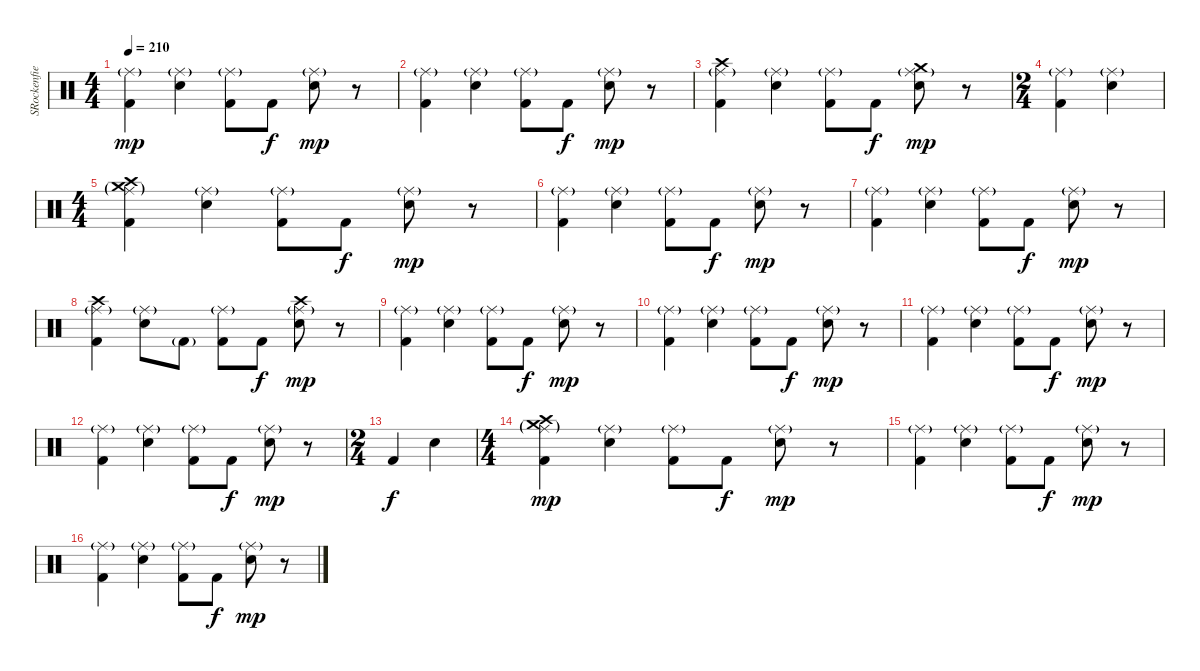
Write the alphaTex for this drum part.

\track ("SRockenfield" "SRockenfie") {instrument percussion}
\staff {score}
\articulation defaults
\ts (4 4)
\tempo 210
\clef neutral
\ks c
("Ride (middle)"{g} "Kick (hit) 2").4{dy mp} ("Ride (middle)"{g} "Electric Snare (hit)").4 ("Ride (middle)"{g} "Kick (hit) 2").8 "Kick (hit) 2".8{dy f} ("Ride (middle)"{g} "Electric Snare (hit)").8{dy mp} r.8 |
("Ride (middle)"{g} "Kick (hit) 2").4 ("Ride (middle)"{g} "Electric Snare (hit)").4 ("Ride (middle)"{g} "Kick (hit) 2").8 "Kick (hit) 2".8{dy f} ("Ride (middle)"{g} "Electric Snare (hit)").8{dy mp} r.8 |
("Ride (middle)"{g} "Crash high (hit)" "Kick (hit) 2").4 ("Ride (middle)"{g} "Electric Snare (hit)").4 ("Ride (middle)"{g} "Kick (hit) 2").8 "Kick (hit) 2".8{dy f} ("Ride (middle)"{g} "Crash medium (hit)" "Electric Snare (hit)").8{dy mp} r.8 |
\ts (2 4)
("Ride (middle)"{g} "Kick (hit) 2").4 ("Ride (middle)"{g} "Electric Snare (hit)").4 |
\ts (4 4)
("Ride (middle)"{g} "Crash high (hit)" "Crash medium (hit)"{g} "Kick (hit) 2").4 ("Ride (middle)"{g} "Electric Snare (hit)").4 ("Ride (middle)"{g} "Kick (hit) 2").8 "Kick (hit) 2".8{dy f} ("Ride (middle)"{g} "Electric Snare (hit)").8{dy mp} r.8 |
("Ride (middle)"{g} "Kick (hit) 2").4 ("Ride (middle)"{g} "Electric Snare (hit)").4 ("Ride (middle)"{g} "Kick (hit) 2").8 "Kick (hit) 2".8{dy f} ("Ride (middle)"{g} "Electric Snare (hit)").8{dy mp} r.8 |
("Ride (middle)"{g} "Kick (hit) 2").4 ("Ride (middle)"{g} "Electric Snare (hit)").4 ("Ride (middle)"{g} "Kick (hit) 2").8 "Kick (hit) 2".8{dy f} ("Ride (middle)"{g} "Electric Snare (hit)").8{dy mp} r.8 |
("Ride (middle)"{g} "Crash high (hit)" "Kick (hit) 2").4 ("Ride (middle)"{g} "Electric Snare (hit)").8 "Kick (hit) 2"{g}.8 ("Ride (middle)"{g} "Kick (hit) 2").8 "Kick (hit) 2".8{dy f} ("Ride (middle)"{g} "Crash high (hit)" "Electric Snare (hit)").8{dy mp} r.8 |
("Ride (middle)"{g} "Kick (hit) 2").4 ("Ride (middle)"{g} "Electric Snare (hit)").4 ("Ride (middle)"{g} "Kick (hit) 2").8 "Kick (hit) 2".8{dy f} ("Ride (middle)"{g} "Electric Snare (hit)").8{dy mp} r.8 |
("Ride (middle)"{g} "Kick (hit) 2").4 ("Ride (middle)"{g} "Electric Snare (hit)").4 ("Ride (middle)"{g} "Kick (hit) 2").8 "Kick (hit) 2".8{dy f} ("Ride (middle)"{g} "Electric Snare (hit)").8{dy mp} r.8 |
("Ride (middle)"{g} "Kick (hit) 2").4 ("Ride (middle)"{g} "Electric Snare (hit)").4 ("Ride (middle)"{g} "Kick (hit) 2").8 "Kick (hit) 2".8{dy f} ("Ride (middle)"{g} "Electric Snare (hit)").8{dy mp} r.8 |
("Ride (middle)"{g} "Kick (hit) 2").4 ("Ride (middle)"{g} "Electric Snare (hit)").4 ("Ride (middle)"{g} "Kick (hit) 2").8 "Kick (hit) 2".8{dy f} ("Ride (middle)"{g} "Electric Snare (hit)").8{dy mp} r.8 |
\ts (2 4)
"Kick (hit) 2".4{dy f} "Electric Snare (hit)".4 |
\ts (4 4)
("Ride (middle)"{g} "Crash high (hit)" "Crash medium (hit)"{g} "Kick (hit) 2").4{dy mp} ("Ride (middle)"{g} "Electric Snare (hit)").4 ("Ride (middle)"{g} "Kick (hit) 2").8 "Kick (hit) 2".8{dy f} ("Ride (middle)"{g} "Electric Snare (hit)").8{dy mp} r.8 |
("Ride (middle)"{g} "Kick (hit) 2").4 ("Ride (middle)"{g} "Electric Snare (hit)").4 ("Ride (middle)"{g} "Kick (hit) 2").8 "Kick (hit) 2".8{dy f} ("Ride (middle)"{g} "Electric Snare (hit)").8{dy mp} r.8 |
("Ride (middle)"{g} "Kick (hit) 2").4 ("Ride (middle)"{g} "Electric Snare (hit)").4 ("Ride (middle)"{g} "Kick (hit) 2").8 "Kick (hit) 2".8{dy f} ("Ride (middle)"{g} "Electric Snare (hit)").8{dy mp} r.8
